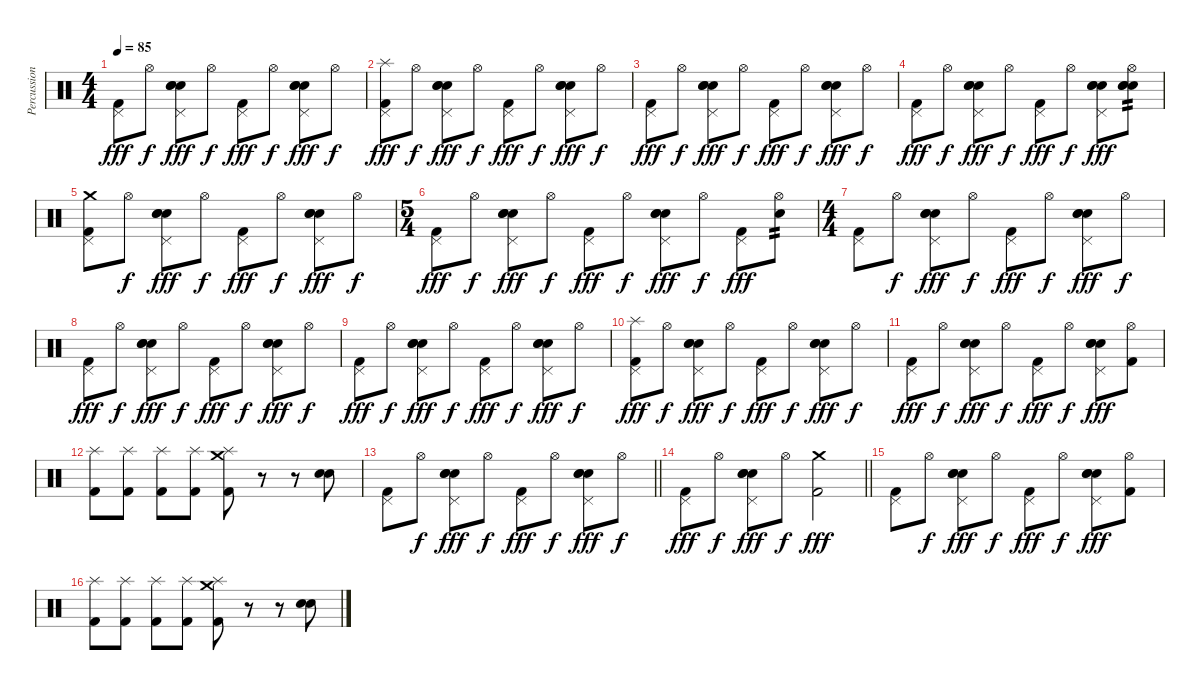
\track ("Percussion" "Percussion") {instrument percussion}
\staff {score}
\articulation defaults
\ts (4 4)
\tempo 85
\clef neutral
\ks c
("Pedal Hi-Hat (hit)" "Kick (hit) 2").8{dy fff} "Hi-Hat (open)".8{dy f} ("Pedal Hi-Hat (hit)" "Hand Clap (hit)" "Electric Snare (hit)" "Snare (hit) 2").8{dy fff} "Hi-Hat (open)".8{dy f} ("Pedal Hi-Hat (hit)" "Kick (hit) 2").8{dy fff} "Hi-Hat (open)".8{dy f} ("Pedal Hi-Hat (hit)" "Hand Clap (hit)" "Electric Snare (hit)" "Snare (hit) 2").8{dy fff} "Hi-Hat (open)".8{dy f} |
("Splash (hit)" "Pedal Hi-Hat (hit)" "Kick (hit) 2").8{dy fff} "Hi-Hat (open)".8{dy f} ("Pedal Hi-Hat (hit)" "Hand Clap (hit)" "Electric Snare (hit)" "Snare (hit) 2").8{dy fff} "Hi-Hat (open)".8{dy f} ("Pedal Hi-Hat (hit)" "Kick (hit) 2").8{dy fff} "Hi-Hat (open)".8{dy f} ("Pedal Hi-Hat (hit)" "Hand Clap (hit)" "Electric Snare (hit)" "Snare (hit) 2").8{dy fff} "Hi-Hat (open)".8{dy f} |
("Pedal Hi-Hat (hit)" "Kick (hit) 2").8{dy fff} "Hi-Hat (open)".8{dy f} ("Pedal Hi-Hat (hit)" "Hand Clap (hit)" "Electric Snare (hit)" "Snare (hit) 2").8{dy fff} "Hi-Hat (open)".8{dy f} ("Pedal Hi-Hat (hit)" "Kick (hit) 2").8{dy fff} "Hi-Hat (open)".8{dy f} ("Pedal Hi-Hat (hit)" "Hand Clap (hit)" "Electric Snare (hit)" "Snare (hit) 2").8{dy fff} "Hi-Hat (open)".8{dy f} |
("Pedal Hi-Hat (hit)" "Kick (hit) 2").8{dy fff} "Hi-Hat (open)".8{dy f} ("Pedal Hi-Hat (hit)" "Hand Clap (hit)" "Electric Snare (hit)" "Snare (hit) 2").8{dy fff} "Hi-Hat (open)".8{dy f} ("Pedal Hi-Hat (hit)" "Kick (hit) 2").8{dy fff} "Hi-Hat (open)".8{dy f} ("Pedal Hi-Hat (hit)" "Hand Clap (hit)" "Electric Snare (hit)" "Snare (hit) 2").8{dy fff} ("Hi-Hat (open)" "Hand Clap (hit)" "Electric Snare (hit)" "Snare (hit) 2").8{tp 2} |
("Crash medium (hit)" "Pedal Hi-Hat (hit)" "Kick (hit) 2").8 "Hi-Hat (open)".8{dy f} ("Pedal Hi-Hat (hit)" "Hand Clap (hit)" "Electric Snare (hit)" "Snare (hit) 2").8{dy fff} "Hi-Hat (open)".8{dy f} ("Pedal Hi-Hat (hit)" "Kick (hit) 2").8{dy fff} "Hi-Hat (open)".8{dy f} ("Pedal Hi-Hat (hit)" "Hand Clap (hit)" "Electric Snare (hit)" "Snare (hit) 2").8{dy fff} "Hi-Hat (open)".8{dy f} |
\ts (5 4)
("Pedal Hi-Hat (hit)" "Kick (hit) 2").8{dy fff} "Hi-Hat (open)".8{dy f} ("Pedal Hi-Hat (hit)" "Hand Clap (hit)" "Electric Snare (hit)" "Snare (hit) 2").8{dy fff} "Hi-Hat (open)".8{dy f} ("Pedal Hi-Hat (hit)" "Kick (hit) 2").8{dy fff} "Hi-Hat (open)".8{dy f} ("Pedal Hi-Hat (hit)" "Hand Clap (hit)" "Electric Snare (hit)" "Snare (hit) 2").8{dy fff} "Hi-Hat (open)".8{dy f} ("Pedal Hi-Hat (hit)" "Kick (hit) 2").8{dy fff} ("Hi-Hat (open)" "Electric Snare (hit)").8{tp 2} |
\ts (4 4)
("Pedal Hi-Hat (hit)" "Kick (hit) 2").8 "Hi-Hat (open)".8{dy f} ("Pedal Hi-Hat (hit)" "Hand Clap (hit)" "Electric Snare (hit)" "Snare (hit) 2").8{dy fff} "Hi-Hat (open)".8{dy f} ("Pedal Hi-Hat (hit)" "Kick (hit) 2").8{dy fff} "Hi-Hat (open)".8{dy f} ("Pedal Hi-Hat (hit)" "Hand Clap (hit)" "Electric Snare (hit)" "Snare (hit) 2").8{dy fff} "Hi-Hat (open)".8{dy f} |
("Pedal Hi-Hat (hit)" "Kick (hit) 2").8{dy fff} "Hi-Hat (open)".8{dy f} ("Pedal Hi-Hat (hit)" "Hand Clap (hit)" "Electric Snare (hit)" "Snare (hit) 2").8{dy fff} "Hi-Hat (open)".8{dy f} ("Pedal Hi-Hat (hit)" "Kick (hit) 2").8{dy fff} "Hi-Hat (open)".8{dy f} ("Pedal Hi-Hat (hit)" "Hand Clap (hit)" "Electric Snare (hit)" "Snare (hit) 2").8{dy fff} "Hi-Hat (open)".8{dy f} |
("Pedal Hi-Hat (hit)" "Kick (hit) 2").8{dy fff} "Hi-Hat (open)".8{dy f} ("Pedal Hi-Hat (hit)" "Hand Clap (hit)" "Electric Snare (hit)" "Snare (hit) 2").8{dy fff} "Hi-Hat (open)".8{dy f} ("Pedal Hi-Hat (hit)" "Kick (hit) 2").8{dy fff} "Hi-Hat (open)".8{dy f} ("Pedal Hi-Hat (hit)" "Hand Clap (hit)" "Electric Snare (hit)" "Snare (hit) 2").8{dy fff} "Hi-Hat (open)".8{dy f} |
("Splash (hit)" "Pedal Hi-Hat (hit)" "Kick (hit) 2").8{dy fff} "Hi-Hat (open)".8{dy f} ("Pedal Hi-Hat (hit)" "Hand Clap (hit)" "Electric Snare (hit)" "Snare (hit) 2").8{dy fff} "Hi-Hat (open)".8{dy f} ("Pedal Hi-Hat (hit)" "Kick (hit) 2").8{dy fff} "Hi-Hat (open)".8{dy f} ("Pedal Hi-Hat (hit)" "Hand Clap (hit)" "Electric Snare (hit)" "Snare (hit) 2").8{dy fff} "Hi-Hat (open)".8{dy f} |
("Pedal Hi-Hat (hit)" "Kick (hit) 2").8{dy fff} "Hi-Hat (open)".8{dy f} ("Pedal Hi-Hat (hit)" "Hand Clap (hit)" "Electric Snare (hit)" "Snare (hit) 2").8{dy fff} "Hi-Hat (open)".8{dy f} ("Pedal Hi-Hat (hit)" "Kick (hit) 2").8{dy fff} "Hi-Hat (open)".8{dy f} ("Pedal Hi-Hat (hit)" "Hand Clap (hit)" "Electric Snare (hit)" "Snare (hit) 2").8{dy fff} ("Hi-Hat (open)" "Kick (hit) 2").8 |
("Splash (hit)" "Kick (hit) 2").8 ("Splash (hit)" "Kick (hit) 2").8 ("Splash (hit)" "Kick (hit) 2").8 ("Splash (hit)" "Kick (hit) 2").8 ("Crash medium (hit)" "Splash (hit)" "Kick (hit) 2").8 r.8 r.8 ("Hand Clap (hit)" "Electric Snare (hit)").8 |
\barLineRight lightlight
("Pedal Hi-Hat (hit)" "Kick (hit) 2").8 "Hi-Hat (open)".8{dy f} ("Pedal Hi-Hat (hit)" "Hand Clap (hit)" "Electric Snare (hit)" "Snare (hit) 2").8{dy fff} "Hi-Hat (open)".8{dy f} ("Pedal Hi-Hat (hit)" "Kick (hit) 2").8{dy fff} "Hi-Hat (open)".8{dy f} ("Pedal Hi-Hat (hit)" "Hand Clap (hit)" "Electric Snare (hit)" "Snare (hit) 2").8{dy fff} "Hi-Hat (open)".8{dy f} |
\barLineRight lightlight
("Pedal Hi-Hat (hit)" "Kick (hit) 2").8{dy fff} "Hi-Hat (open)".8{dy f} ("Pedal Hi-Hat (hit)" "Hand Clap (hit)" "Electric Snare (hit)" "Snare (hit) 2").8{dy fff} "Hi-Hat (open)".8{dy f} ("Crash medium (hit)" "Kick (hit) 2").2{dy fff} |
("Pedal Hi-Hat (hit)" "Kick (hit) 2").8 "Hi-Hat (open)".8{dy f} ("Pedal Hi-Hat (hit)" "Hand Clap (hit)" "Electric Snare (hit)" "Snare (hit) 2").8{dy fff} "Hi-Hat (open)".8{dy f} ("Pedal Hi-Hat (hit)" "Kick (hit) 2").8{dy fff} "Hi-Hat (open)".8{dy f} ("Pedal Hi-Hat (hit)" "Hand Clap (hit)" "Electric Snare (hit)" "Snare (hit) 2").8{dy fff} ("Hi-Hat (open)" "Kick (hit) 2").8 |
("Splash (hit)" "Kick (hit) 2").8 ("Splash (hit)" "Kick (hit) 2").8 ("Splash (hit)" "Kick (hit) 2").8 ("Splash (hit)" "Kick (hit) 2").8 ("Crash medium (hit)" "Splash (hit)" "Kick (hit) 2").8 r.8 r.8 ("Hand Clap (hit)" "Electric Snare (hit)").8
